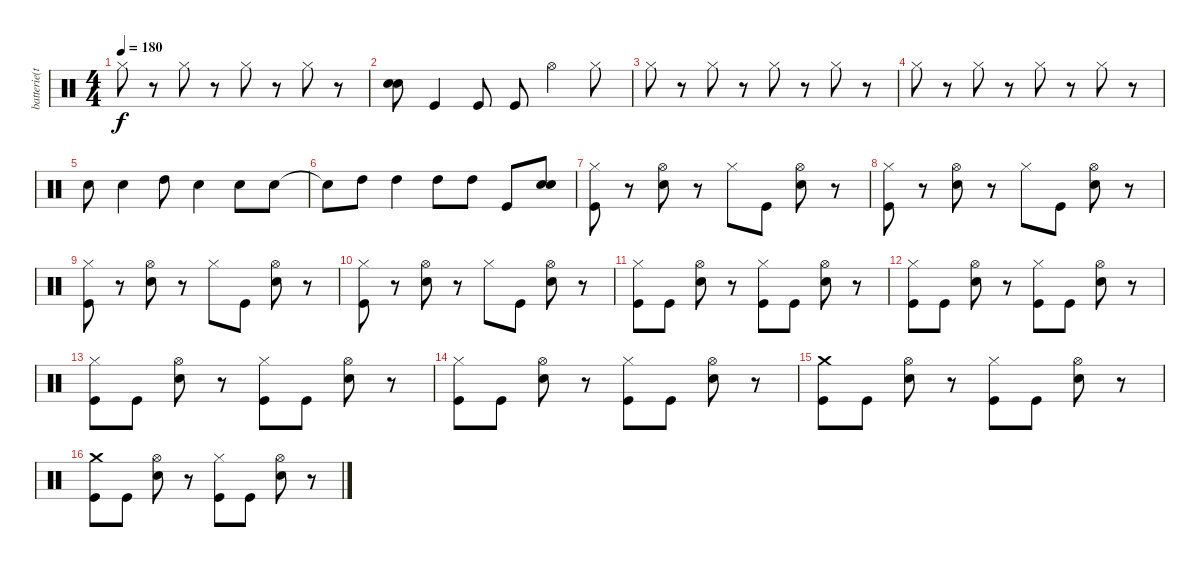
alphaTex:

\track ("batterie(topper)" "batterie(t") {instrument percussion}
\staff {score}
\articulation defaults
\ts (4 4)
\tempo 180
\clef neutral
\ks c "Hi-Hat (closed)".8{dy f}
r.8 "Hi-Hat (closed)".8 r.8 "Hi-Hat (closed)".8 r.8 "Hi-Hat (closed)".8 r.8 |
("Snare (hit) 2" "Snare (hit) 2").8 "Kick (hit)".4 "Kick (hit)".8 "Kick (hit)".8 "Hi-Hat (open)".4 "Hi-Hat (closed)".8 |
"Hi-Hat (closed)".8 r.8 "Hi-Hat (closed)".8 r.8 "Hi-Hat (closed)".8 r.8 "Hi-Hat (closed)".8 r.8 |
"Hi-Hat (closed)".8 r.8 "Hi-Hat (closed)".8 r.8 "Hi-Hat (closed)".8 r.8 "Hi-Hat (closed)".8 r.8 |
"Snare (hit) 2".8 "Snare (hit) 2".4 "High Tom (hit)".8 "Snare (hit) 2".4 "Snare (hit) 2".8 "Snare (hit) 2".8 |
"Snare (hit) 2"{t}.8 "High Tom (hit)".8 "High Tom (hit)".4 "High Tom (hit)".8 "High Tom (hit)".8 "Kick (hit)".8 ("Snare (hit) 2" "Snare (hit) 2").8 |
("Hi-Hat (closed)" "Kick (hit)").8 r.8 ("Hi-Hat (open)" "Snare (hit) 2").8 r.8 "Hi-Hat (closed)".8 "Kick (hit)".8 ("Hi-Hat (open)" "Snare (hit) 2").8 r.8 |
("Hi-Hat (closed)" "Kick (hit)").8 r.8 ("Hi-Hat (open)" "Snare (hit) 2").8 r.8 "Hi-Hat (closed)".8 "Kick (hit)".8 ("Hi-Hat (open)" "Snare (hit) 2").8 r.8 |
("Hi-Hat (closed)" "Kick (hit)").8 r.8 ("Hi-Hat (open)" "Snare (hit) 2").8 r.8 "Hi-Hat (closed)".8 "Kick (hit)".8 ("Hi-Hat (open)" "Snare (hit) 2").8 r.8 |
("Hi-Hat (closed)" "Kick (hit)").8 r.8 ("Hi-Hat (open)" "Snare (hit) 2").8 r.8 "Hi-Hat (closed)".8 "Kick (hit)".8 ("Hi-Hat (open)" "Snare (hit) 2").8 r.8 |
("Hi-Hat (closed)" "Kick (hit)").8 "Kick (hit)".8 ("Hi-Hat (open)" "Snare (hit) 2").8 r.8 ("Hi-Hat (closed)" "Kick (hit)").8 "Kick (hit)".8 ("Hi-Hat (open)" "Snare (hit) 2").8 r.8 |
("Hi-Hat (closed)" "Kick (hit)").8 "Kick (hit)".8 ("Hi-Hat (open)" "Snare (hit) 2").8 r.8 ("Hi-Hat (closed)" "Kick (hit)").8 "Kick (hit)".8 ("Hi-Hat (open)" "Snare (hit) 2").8 r.8 |
("Hi-Hat (closed)" "Kick (hit)").8 "Kick (hit)".8 ("Hi-Hat (open)" "Snare (hit) 2").8 r.8 ("Hi-Hat (closed)" "Kick (hit)").8 "Kick (hit)".8 ("Hi-Hat (open)" "Snare (hit) 2").8 r.8 |
("Hi-Hat (closed)" "Kick (hit)").8 "Kick (hit)".8 ("Hi-Hat (open)" "Snare (hit) 2").8 r.8 ("Hi-Hat (closed)" "Kick (hit)").8 "Kick (hit)".8 ("Hi-Hat (open)" "Snare (hit) 2").8 r.8 |
("Crash medium (hit)" "Kick (hit)").8 "Kick (hit)".8 ("Hi-Hat (open)" "Snare (hit) 2").8 r.8 ("Hi-Hat (closed)" "Kick (hit)").8 "Kick (hit)".8 ("Hi-Hat (open)" "Snare (hit) 2").8 r.8 |
("Crash medium (hit)" "Kick (hit)").8 "Kick (hit)".8 ("Hi-Hat (open)" "Snare (hit) 2").8 r.8 ("Hi-Hat (closed)" "Kick (hit)").8 "Kick (hit)".8 ("Hi-Hat (open)" "Snare (hit) 2").8 r.8
